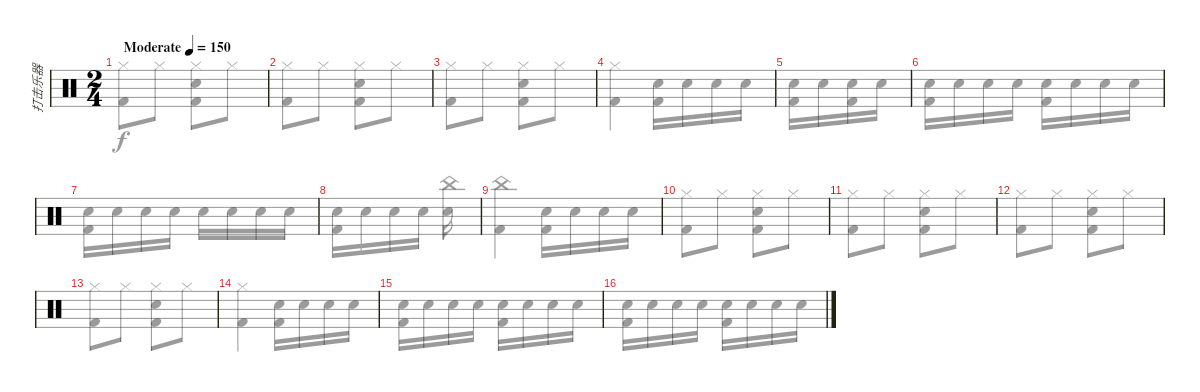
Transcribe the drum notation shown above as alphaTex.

\track ("打击乐器" "打击乐器") {instrument percussion bank 10}
\staff {score}
\articulation defaults
\voice
\ts (2 4)
\tempo (150 "Moderate")
\clef neutral
\ks c
|
|
|
|
|
|
|
|
|
|
|
|
|
|
|
\voice
\clef neutral
\ks c
("Hi-Hat (closed)" "Kick (hit) 2").8{dy f} "Hi-Hat (closed)".8 ("Hi-Hat (closed)" "Electric Snare (hit)" "Kick (hit) 2").8 "Hi-Hat (closed)".8 |
("Hi-Hat (closed)" "Kick (hit) 2").8 "Hi-Hat (closed)".8 ("Hi-Hat (closed)" "Electric Snare (hit)" "Kick (hit) 2").8 "Hi-Hat (closed)".8 |
("Hi-Hat (closed)" "Kick (hit) 2").8 "Hi-Hat (closed)".8 ("Hi-Hat (closed)" "Electric Snare (hit)" "Kick (hit) 2").8 "Hi-Hat (closed)".8 |
("Hi-Hat (closed)" "Kick (hit) 2").4 ("Electric Snare (hit)" "Kick (hit) 2").16 "Electric Snare (hit)".16 "Electric Snare (hit)".16 "Electric Snare (hit)".16 |
("Electric Snare (hit)" "Kick (hit) 2").16 "Electric Snare (hit)".16 ("Electric Snare (hit)" "Kick (hit) 2").16 "Electric Snare (hit)".16 |
("Electric Snare (hit)" "Kick (hit) 2").16 "Electric Snare (hit)".16 "Electric Snare (hit)".16 "Electric Snare (hit)".16 ("Electric Snare (hit)" "Kick (hit) 2").16 "Electric Snare (hit)".16 "Electric Snare (hit)".16 "Electric Snare (hit)".16 |
("Electric Snare (hit)" "Kick (hit) 2").16 "Electric Snare (hit)".16 "Electric Snare (hit)".16 "Electric Snare (hit)".16 "Electric Snare (hit)".16 "Electric Snare (hit)".16 "Electric Snare (hit)".16 "Electric Snare (hit)".16 |
("Electric Snare (hit)" "Kick (hit) 2").16 "Electric Snare (hit)".16 "Electric Snare (hit)".16 "Electric Snare (hit)".16 ("China (hit)" "Electric Snare (hit)").16 |
("China (hit)" "Kick (hit) 2").4 ("Electric Snare (hit)" "Kick (hit) 2").16 "Electric Snare (hit)".16 "Electric Snare (hit)".16 "Electric Snare (hit)".16 |
("Hi-Hat (closed)" "Kick (hit) 2").8 "Hi-Hat (closed)".8 ("Electric Snare (hit)" "Hi-Hat (closed)" "Kick (hit) 2").8 "Hi-Hat (closed)".8 |
("Hi-Hat (closed)" "Kick (hit) 2").8 "Hi-Hat (closed)".8 ("Hi-Hat (closed)" "Electric Snare (hit)" "Kick (hit) 2").8 "Hi-Hat (closed)".8 |
("Hi-Hat (closed)" "Kick (hit) 2").8 "Hi-Hat (closed)".8 ("Hi-Hat (closed)" "Electric Snare (hit)" "Kick (hit) 2").8 "Hi-Hat (closed)".8 |
("Hi-Hat (closed)" "Kick (hit) 2").8 "Hi-Hat (closed)".8 ("Hi-Hat (closed)" "Electric Snare (hit)" "Kick (hit) 2").8 "Hi-Hat (closed)".8 |
("Hi-Hat (closed)" "Kick (hit) 2").4 ("Electric Snare (hit)" "Kick (hit) 2").16 "Electric Snare (hit)".16 "Electric Snare (hit)".16 "Electric Snare (hit)".16 |
("Electric Snare (hit)" "Kick (hit) 2").16 "Electric Snare (hit)".16 "Electric Snare (hit)".16 "Electric Snare (hit)".16 ("Electric Snare (hit)" "Kick (hit) 2").16 "Electric Snare (hit)".16 "Electric Snare (hit)".16 "Electric Snare (hit)".16 |
("Electric Snare (hit)" "Kick (hit) 2").16 "Electric Snare (hit)".16 "Electric Snare (hit)".16 "Electric Snare (hit)".16 ("Electric Snare (hit)" "Kick (hit) 2").16 "Electric Snare (hit)".16 "Electric Snare (hit)".16 "Electric Snare (hit)".16
